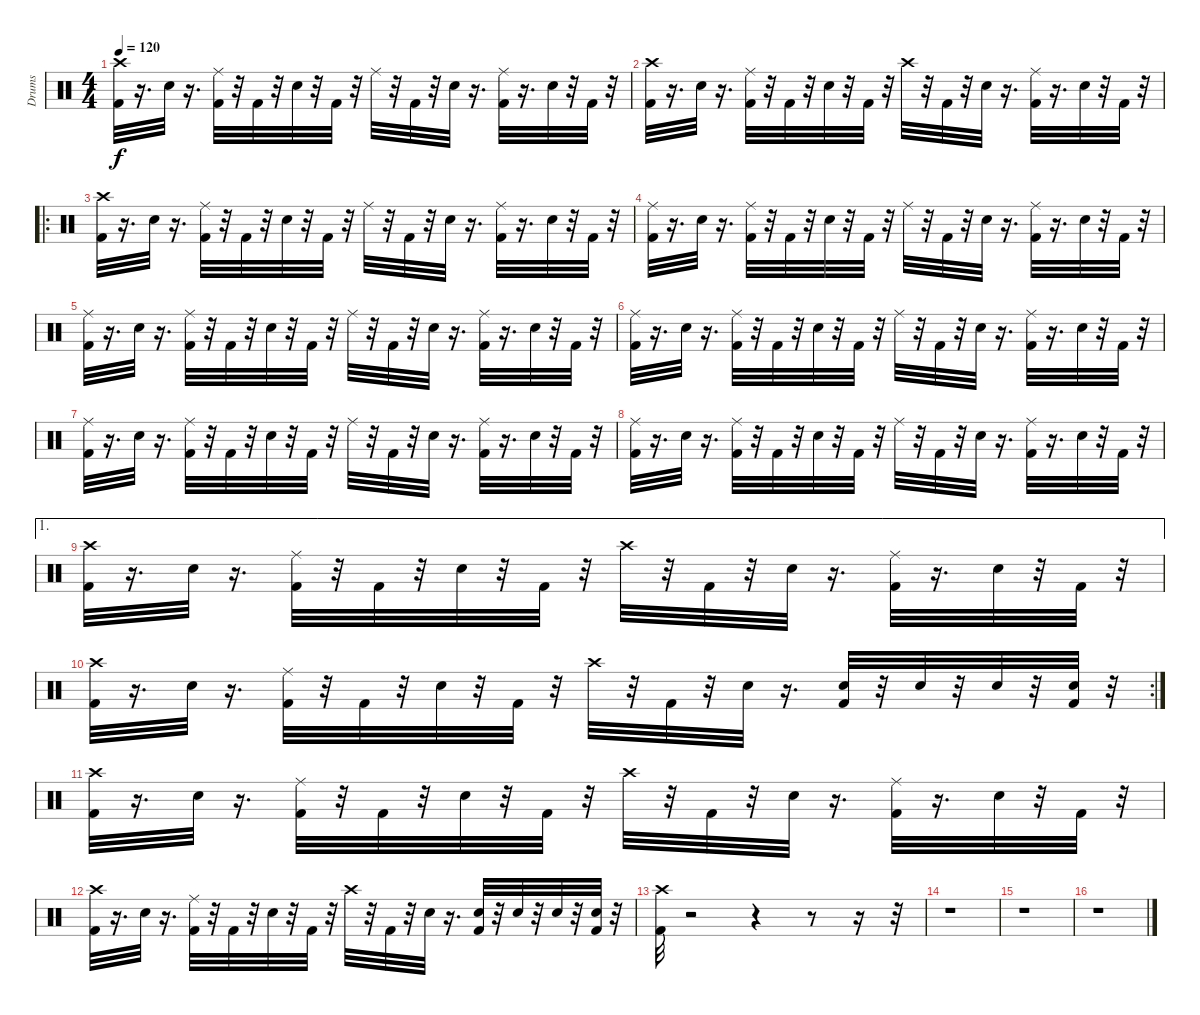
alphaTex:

\track ("Drums" "Drums") {instrument percussion}
\staff {score}
\articulation defaults
\ts (4 4)
\tempo 120
\clef neutral
\ks c
("Crash high (hit)" "Kick (hit) 2").32{dy f} r.16{d} "Snare (hit) 2".32 r.16{d} ("Kick (hit) 2" "Ride (middle)").32 r.32 "Kick (hit) 2".32 r.32 "Snare (hit) 2".32 r.32 "Kick (hit) 2".32 r.32 "Ride (middle)".32 r.32 "Kick (hit) 2".32 r.32 "Snare (hit) 2".32 r.16{d} ("Kick (hit) 2" "Ride (middle)").32 r.16{d} "Snare (hit) 2".32 r.32 "Kick (hit) 2".32 r.32 |
("Crash high (hit)" "Kick (hit) 2").32 r.16{d} "Snare (hit) 2".32 r.16{d} ("Kick (hit) 2" "Ride (middle)").32 r.32 "Kick (hit) 2".32 r.32 "Snare (hit) 2".32 r.32 "Kick (hit) 2".32 r.32 "Crash high (hit)".32 r.32 "Kick (hit) 2".32 r.32 "Snare (hit) 2".32 r.16{d} ("Kick (hit) 2" "Ride (middle)").32 r.16{d} "Snare (hit) 2".32 r.32 "Kick (hit) 2".32 r.32 |
\ro
("Crash high (hit)" "Kick (hit) 2").32 r.16{d} "Snare (hit) 2".32 r.16{d} ("Kick (hit) 2" "Ride (middle)").32 r.32 "Kick (hit) 2".32 r.32 "Snare (hit) 2".32 r.32 "Kick (hit) 2".32 r.32 "Ride (middle)".32 r.32 "Kick (hit) 2".32 r.32 "Snare (hit) 2".32 r.16{d} ("Kick (hit) 2" "Ride (middle)").32 r.16{d} "Snare (hit) 2".32 r.32 "Kick (hit) 2".32 r.32 |
("Ride (middle)" "Kick (hit) 2").32 r.16{d} "Snare (hit) 2".32 r.16{d} ("Kick (hit) 2" "Ride (middle)").32 r.32 "Kick (hit) 2".32 r.32 "Snare (hit) 2".32 r.32 "Kick (hit) 2".32 r.32 "Ride (middle)".32 r.32 "Kick (hit) 2".32 r.32 "Snare (hit) 2".32 r.16{d} ("Kick (hit) 2" "Ride (middle)").32 r.16{d} "Snare (hit) 2".32 r.32 "Kick (hit) 2".32 r.32 |
("Ride (middle)" "Kick (hit) 2").32 r.16{d} "Snare (hit) 2".32 r.16{d} ("Kick (hit) 2" "Ride (middle)").32 r.32 "Kick (hit) 2".32 r.32 "Snare (hit) 2".32 r.32 "Kick (hit) 2".32 r.32 "Ride (middle)".32 r.32 "Kick (hit) 2".32 r.32 "Snare (hit) 2".32 r.16{d} ("Kick (hit) 2" "Ride (middle)").32 r.16{d} "Snare (hit) 2".32 r.32 "Kick (hit) 2".32 r.32 |
("Ride (middle)" "Kick (hit) 2").32 r.16{d} "Snare (hit) 2".32 r.16{d} ("Kick (hit) 2" "Ride (middle)").32 r.32 "Kick (hit) 2".32 r.32 "Snare (hit) 2".32 r.32 "Kick (hit) 2".32 r.32 "Ride (middle)".32 r.32 "Kick (hit) 2".32 r.32 "Snare (hit) 2".32 r.16{d} ("Kick (hit) 2" "Ride (middle)").32 r.16{d} "Snare (hit) 2".32 r.32 "Kick (hit) 2".32 r.32 |
("Ride (middle)" "Kick (hit) 2").32 r.16{d} "Snare (hit) 2".32 r.16{d} ("Kick (hit) 2" "Ride (middle)").32 r.32 "Kick (hit) 2".32 r.32 "Snare (hit) 2".32 r.32 "Kick (hit) 2".32 r.32 "Ride (middle)".32 r.32 "Kick (hit) 2".32 r.32 "Snare (hit) 2".32 r.16{d} ("Kick (hit) 2" "Ride (middle)").32 r.16{d} "Snare (hit) 2".32 r.32 "Kick (hit) 2".32 r.32 |
("Ride (middle)" "Kick (hit) 2").32 r.16{d} "Snare (hit) 2".32 r.16{d} ("Kick (hit) 2" "Ride (middle)").32 r.32 "Kick (hit) 2".32 r.32 "Snare (hit) 2".32 r.32 "Kick (hit) 2".32 r.32 "Ride (middle)".32 r.32 "Kick (hit) 2".32 r.32 "Snare (hit) 2".32 r.16{d} ("Kick (hit) 2" "Ride (middle)").32 r.16{d} "Snare (hit) 2".32 r.32 "Kick (hit) 2".32 r.32 |
\ae 1
("Crash high (hit)" "Kick (hit) 2").32 r.16{d} "Snare (hit) 2".32 r.16{d} ("Kick (hit) 2" "Ride (middle)").32 r.32 "Kick (hit) 2".32 r.32 "Snare (hit) 2".32 r.32 "Kick (hit) 2".32 r.32 "Crash high (hit)".32 r.32 "Kick (hit) 2".32 r.32 "Snare (hit) 2".32 r.16{d} ("Kick (hit) 2" "Ride (middle)").32 r.16{d} "Snare (hit) 2".32 r.32 "Kick (hit) 2".32 r.32 |
\rc 2
("Crash high (hit)" "Kick (hit) 2").32 r.16{d} "Snare (hit) 2".32 r.16{d} ("Kick (hit) 2" "Ride (middle)").32 r.32 "Kick (hit) 2".32 r.32 "Snare (hit) 2".32 r.32 "Kick (hit) 2".32 r.32 "Crash high (hit)".32 r.32 "Kick (hit) 2".32 r.32 "Snare (hit) 2".32 r.16{d} ("Snare (hit) 2" "Kick (hit) 2").32 r.32 "Snare (hit) 2".32 r.32 "Snare (hit) 2".32 r.32 ("Snare (hit) 2" "Kick (hit) 2").32 r.32 |
("Crash high (hit)" "Kick (hit) 2").32 r.16{d} "Snare (hit) 2".32 r.16{d} ("Kick (hit) 2" "Ride (middle)").32 r.32 "Kick (hit) 2".32 r.32 "Snare (hit) 2".32 r.32 "Kick (hit) 2".32 r.32 "Crash high (hit)".32 r.32 "Kick (hit) 2".32 r.32 "Snare (hit) 2".32 r.16{d} ("Kick (hit) 2" "Ride (middle)").32 r.16{d} "Snare (hit) 2".32 r.32 "Kick (hit) 2".32 r.32 |
("Crash high (hit)" "Kick (hit) 2").32 r.16{d} "Snare (hit) 2".32 r.16{d} ("Kick (hit) 2" "Ride (middle)").32 r.32 "Kick (hit) 2".32 r.32 "Snare (hit) 2".32 r.32 "Kick (hit) 2".32 r.32 "Crash high (hit)".32 r.32 "Kick (hit) 2".32 r.32 "Snare (hit) 2".32 r.16{d} ("Snare (hit) 2" "Kick (hit) 2").32 r.32 "Snare (hit) 2".32 r.32 "Snare (hit) 2".32 r.32 ("Snare (hit) 2" "Kick (hit) 2").32 r.32 |
("Crash high (hit)" "Kick (hit) 2").32 r.2 r.4 r.8 r.16 r.32 |
r.1 |
r.1 |
r.1
